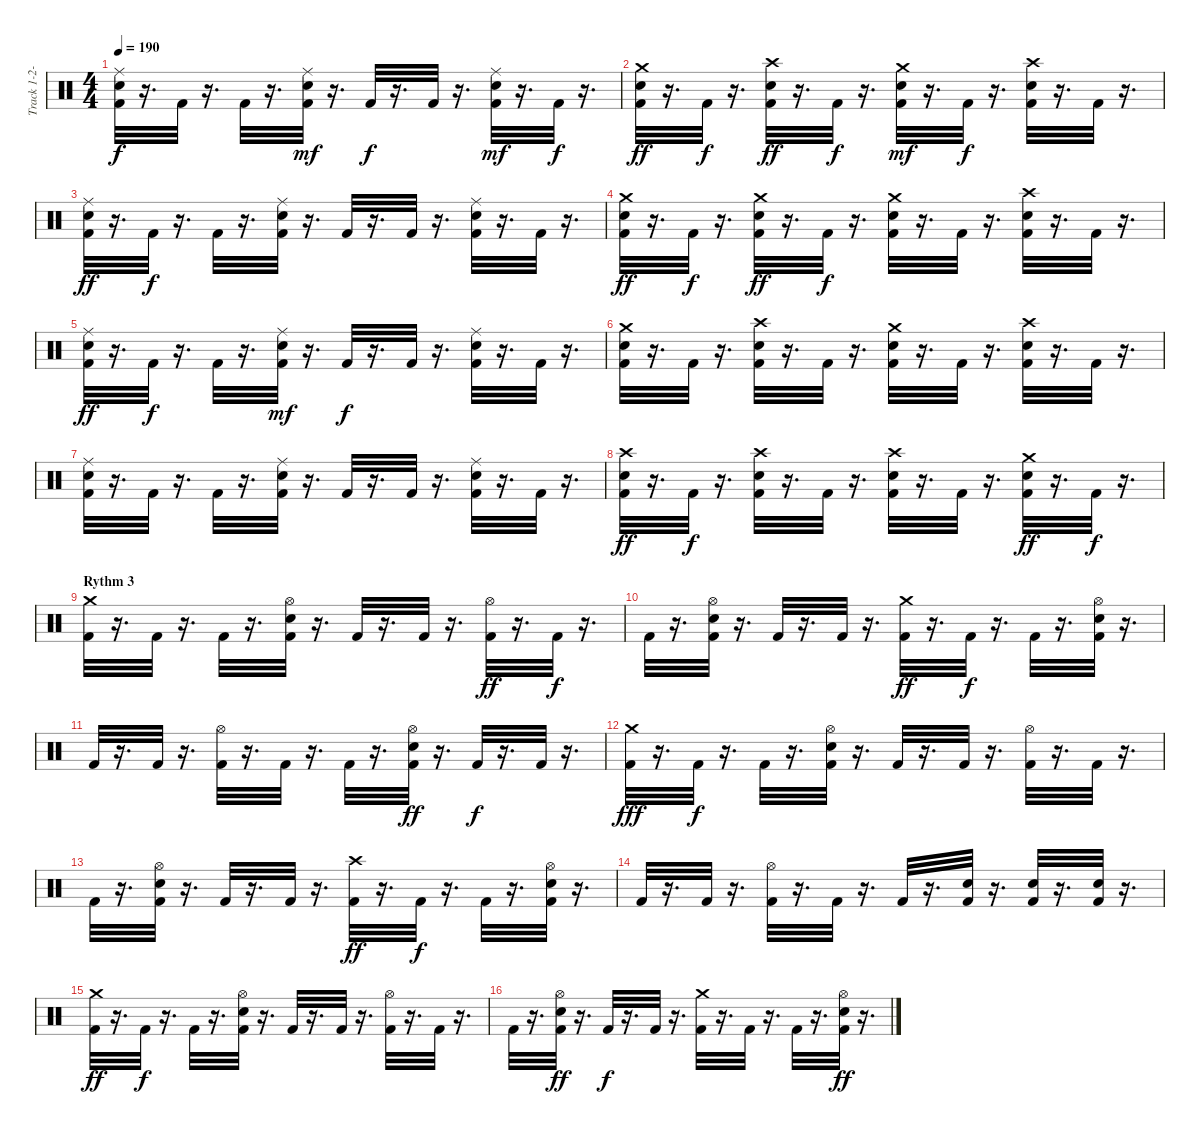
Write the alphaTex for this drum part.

\track ("Track 1-2-3-4-5-6-7-8" "Track 1-2-") {instrument percussion}
\staff {score}
\articulation defaults
\ts (4 4)
\tempo 190
\clef neutral
\ks c
("Ride (middle)" "Kick (hit) 2" "Electric Snare (hit)").32{dy f} r.16{d} "Kick (hit) 2".32 r.16{d} "Kick (hit) 2".32 r.16{d} ("Ride (middle)" "Kick (hit) 2" "Electric Snare (hit)").32{dy mf} r.16{d} "Kick (hit) 2".32{dy f} r.16{d} "Kick (hit) 2".32 r.16{d} ("Ride (middle)" "Kick (hit) 2" "Electric Snare (hit)").32{dy mf} r.16{d} "Kick (hit) 2".32{dy f} r.16{d} |
("Crash medium (hit)" "Kick (hit) 2" "Electric Snare (hit)").32{dy ff} r.16{d} "Kick (hit) 2".32{dy f} r.16{d} ("Crash high (hit)" "Kick (hit) 2" "Electric Snare (hit)").32{dy ff} r.16{d} "Kick (hit) 2".32{dy f} r.16{d} ("Crash medium (hit)" "Kick (hit) 2" "Electric Snare (hit)").32{dy mf} r.16{d} "Kick (hit) 2".32{dy f} r.16{d} ("Crash high (hit)" "Kick (hit) 2" "Electric Snare (hit)").32 r.16{d} "Kick (hit) 2".32 r.16{d} |
("Ride (middle)" "Kick (hit) 2" "Electric Snare (hit)").32{dy ff} r.16{d} "Kick (hit) 2".32{dy f} r.16{d} "Kick (hit) 2".32 r.16{d} ("Ride (middle)" "Kick (hit) 2" "Electric Snare (hit)").32 r.16{d} "Kick (hit) 2".32 r.16{d} "Kick (hit) 2".32 r.16{d} ("Ride (middle)" "Kick (hit) 2" "Electric Snare (hit)").32 r.16{d} "Kick (hit) 2".32 r.16{d} |
("Crash medium (hit)" "Kick (hit) 2" "Electric Snare (hit)").32{dy ff} r.16{d} "Kick (hit) 2".32{dy f} r.16{d} ("Crash medium (hit)" "Kick (hit) 2" "Electric Snare (hit)").32{dy ff} r.16{d} "Kick (hit) 2".32{dy f} r.16{d} ("Crash medium (hit)" "Kick (hit) 2" "Electric Snare (hit)").32 r.16{d} "Kick (hit) 2".32 r.16{d} ("Crash high (hit)" "Kick (hit) 2" "Electric Snare (hit)").32 r.16{d} "Kick (hit) 2".32 r.16{d} |
("Ride (middle)" "Kick (hit) 2" "Electric Snare (hit)").32{dy ff} r.16{d} "Kick (hit) 2".32{dy f} r.16{d} "Kick (hit) 2".32 r.16{d} ("Ride (middle)" "Kick (hit) 2" "Electric Snare (hit)").32{dy mf} r.16{d} "Kick (hit) 2".32{dy f} r.16{d} "Kick (hit) 2".32 r.16{d} ("Ride (middle)" "Kick (hit) 2" "Electric Snare (hit)").32 r.16{d} "Kick (hit) 2".32 r.16{d} |
("Crash medium (hit)" "Kick (hit) 2" "Electric Snare (hit)").32 r.16{d} "Kick (hit) 2".32 r.16{d} ("Crash high (hit)" "Kick (hit) 2" "Electric Snare (hit)").32 r.16{d} "Kick (hit) 2".32 r.16{d} ("Crash medium (hit)" "Kick (hit) 2" "Electric Snare (hit)").32 r.16{d} "Kick (hit) 2".32 r.16{d} ("Crash high (hit)" "Kick (hit) 2" "Electric Snare (hit)").32 r.16{d} "Kick (hit) 2".32 r.16{d} |
("Ride (middle)" "Kick (hit) 2" "Electric Snare (hit)").32 r.16{d} "Kick (hit) 2".32 r.16{d} "Kick (hit) 2".32 r.16{d} ("Ride (middle)" "Kick (hit) 2" "Electric Snare (hit)").32 r.16{d} "Kick (hit) 2".32 r.16{d} "Kick (hit) 2".32 r.16{d} ("Ride (middle)" "Kick (hit) 2" "Electric Snare (hit)").32 r.16{d} "Kick (hit) 2".32 r.16{d} |
("Crash high (hit)" "Kick (hit) 2" "Electric Snare (hit)").32{dy ff} r.16{d} "Kick (hit) 2".32{dy f} r.16{d} ("Crash high (hit)" "Kick (hit) 2" "Electric Snare (hit)").32 r.16{d} "Kick (hit) 2".32 r.16{d} ("Crash high (hit)" "Kick (hit) 2" "Electric Snare (hit)").32 r.16{d} "Kick (hit) 2".32 r.16{d} ("Crash medium (hit)" "Kick (hit) 2" "Electric Snare (hit)").32{dy ff} r.16{d} "Kick (hit) 2".32{dy f} r.16{d} |
\section ("" "Rythm 3")
("Crash medium (hit)" "Kick (hit) 2").32 r.16{d} "Kick (hit) 2".32 r.16{d} "Kick (hit) 2".32 r.16{d} ("Hi-Hat (open)" "Kick (hit) 2" "Electric Snare (hit)").32 r.16{d} "Kick (hit) 2".32 r.16{d} "Kick (hit) 2".32 r.16{d} ("Hi-Hat (open)" "Kick (hit) 2").32{dy ff} r.16{d} "Kick (hit) 2".32{dy f} r.16{d} |
"Kick (hit) 2".32 r.16{d} ("Hi-Hat (open)" "Kick (hit) 2" "Electric Snare (hit)").32 r.16{d} "Kick (hit) 2".32 r.16{d} "Kick (hit) 2".32 r.16{d} ("Crash medium (hit)" "Kick (hit) 2").32{dy ff} r.16{d} "Kick (hit) 2".32{dy f} r.16{d} "Kick (hit) 2".32 r.16{d} ("Hi-Hat (open)" "Kick (hit) 2" "Electric Snare (hit)").32 r.16{d} |
"Kick (hit) 2".32 r.16{d} "Kick (hit) 2".32 r.16{d} ("Hi-Hat (open)" "Kick (hit) 2").32 r.16{d} "Kick (hit) 2".32 r.16{d} "Kick (hit) 2".32 r.16{d} ("Hi-Hat (open)" "Kick (hit) 2" "Electric Snare (hit)").32{dy ff} r.16{d} "Kick (hit) 2".32{dy f} r.16{d} "Kick (hit) 2".32 r.16{d} |
("Crash medium (hit)" "Kick (hit) 2").32{dy fff} r.16{d} "Kick (hit) 2".32{dy f} r.16{d} "Kick (hit) 2".32 r.16{d} ("Hi-Hat (open)" "Kick (hit) 2" "Electric Snare (hit)").32 r.16{d} "Kick (hit) 2".32 r.16{d} "Kick (hit) 2".32 r.16{d} ("Hi-Hat (open)" "Kick (hit) 2").32 r.16{d} "Kick (hit) 2".32 r.16{d} |
"Kick (hit) 2".32 r.16{d} ("Hi-Hat (open)" "Kick (hit) 2" "Electric Snare (hit)").32 r.16{d} "Kick (hit) 2".32 r.16{d} "Kick (hit) 2".32 r.16{d} ("Crash high (hit)" "Kick (hit) 2").32{dy ff} r.16{d} "Kick (hit) 2".32{dy f} r.16{d} "Kick (hit) 2".32 r.16{d} ("Hi-Hat (open)" "Kick (hit) 2" "Electric Snare (hit)").32 r.16{d} |
"Kick (hit) 2".32 r.16{d} "Kick (hit) 2".32 r.16{d} ("Hi-Hat (open)" "Kick (hit) 2").32 r.16{d} "Kick (hit) 2".32 r.16{d} "Kick (hit) 2".32 r.16{d} ("Kick (hit) 2" "Electric Snare (hit)").32 r.16{d} ("Kick (hit) 2" "Electric Snare (hit)").32 r.16{d} ("Kick (hit) 2" "Electric Snare (hit)").32 r.16{d} |
("Crash medium (hit)" "Kick (hit) 2").32{dy ff} r.16{d} "Kick (hit) 2".32{dy f} r.16{d} "Kick (hit) 2".32 r.16{d} ("Hi-Hat (open)" "Kick (hit) 2" "Electric Snare (hit)").32 r.16{d} "Kick (hit) 2".32 r.16{d} "Kick (hit) 2".32 r.16{d} ("Hi-Hat (open)" "Kick (hit) 2").32 r.16{d} "Kick (hit) 2".32 r.16{d} |
"Kick (hit) 2".32 r.16{d} ("Hi-Hat (open)" "Kick (hit) 2" "Electric Snare (hit)").32{dy ff} r.16{d} "Kick (hit) 2".32{dy f} r.16{d} "Kick (hit) 2".32 r.16{d} ("Crash medium (hit)" "Kick (hit) 2").32 r.16{d} "Kick (hit) 2".32 r.16{d} "Kick (hit) 2".32 r.16{d} ("Hi-Hat (open)" "Kick (hit) 2" "Electric Snare (hit)").32{dy ff} r.16{d}
